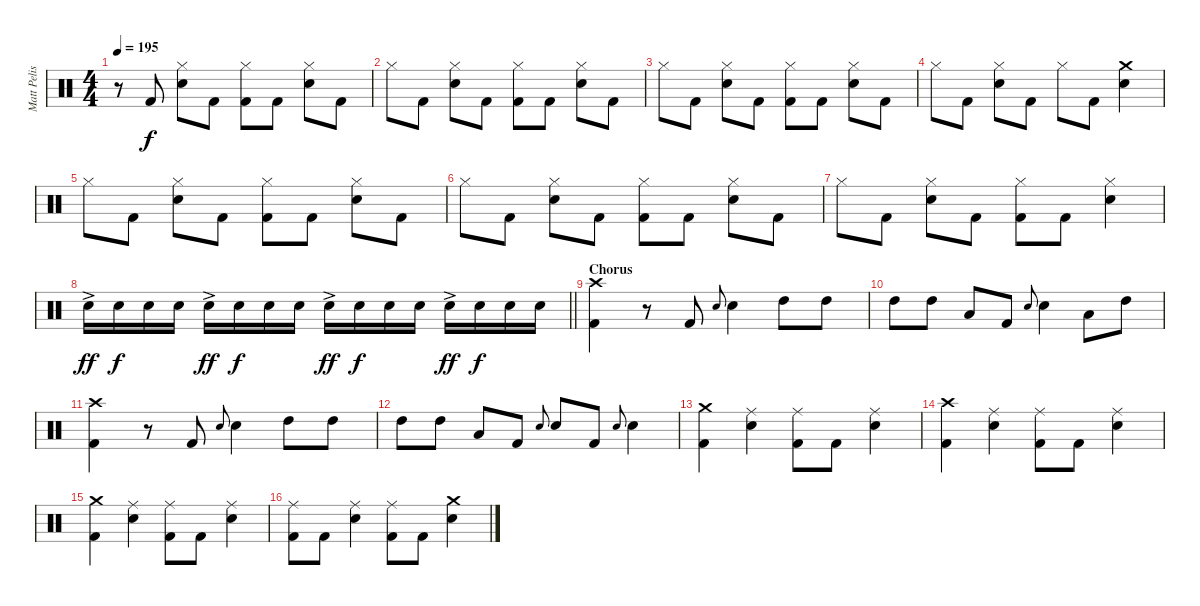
\track ("Matt Pelissier" "Matt Pelis") {instrument percussion}
\staff {score}
\articulation defaults
\ts (4 4)
\tempo 195
\clef neutral
\ks c
r.8{dy f} "Kick (hit) 2".8 ("Hi-Hat (closed)" "Electric Snare (hit)").8 "Kick (hit) 2".8 ("Hi-Hat (closed)" "Kick (hit) 2").8 "Kick (hit) 2".8 ("Hi-Hat (closed)" "Electric Snare (hit)").8 "Kick (hit) 2".8 |
"Hi-Hat (closed)".8 "Kick (hit) 2".8 ("Hi-Hat (closed)" "Electric Snare (hit)").8 "Kick (hit) 2".8 ("Hi-Hat (closed)" "Kick (hit) 2").8 "Kick (hit) 2".8 ("Hi-Hat (closed)" "Electric Snare (hit)").8 "Kick (hit) 2".8 |
"Hi-Hat (closed)".8 "Kick (hit) 2".8 ("Hi-Hat (closed)" "Electric Snare (hit)").8 "Kick (hit) 2".8 ("Hi-Hat (closed)" "Kick (hit) 2").8 "Kick (hit) 2".8 ("Hi-Hat (closed)" "Electric Snare (hit)").8 "Kick (hit) 2".8 |
"Hi-Hat (closed)".8 "Kick (hit) 2".8 ("Hi-Hat (closed)" "Electric Snare (hit)").8 "Kick (hit) 2".8 "Hi-Hat (closed)".8 "Kick (hit) 2".8 ("Crash medium (hit)" "Electric Snare (hit)").4 |
"Hi-Hat (closed)".8 "Kick (hit) 2".8 ("Hi-Hat (closed)" "Electric Snare (hit)").8 "Kick (hit) 2".8 ("Hi-Hat (closed)" "Kick (hit) 2").8 "Kick (hit) 2".8 ("Hi-Hat (closed)" "Electric Snare (hit)").8 "Kick (hit) 2".8 |
"Hi-Hat (closed)".8 "Kick (hit) 2".8 ("Hi-Hat (closed)" "Electric Snare (hit)").8 "Kick (hit) 2".8 ("Hi-Hat (closed)" "Kick (hit) 2").8 "Kick (hit) 2".8 ("Hi-Hat (closed)" "Electric Snare (hit)").8 "Kick (hit) 2".8 |
"Hi-Hat (closed)".8 "Kick (hit) 2".8 ("Hi-Hat (closed)" "Electric Snare (hit)").8 "Kick (hit) 2".8 ("Hi-Hat (closed)" "Kick (hit) 2").8 "Kick (hit) 2".8 ("Hi-Hat (closed)" "Electric Snare (hit)").4 |
\barLineRight lightlight "Electric Snare (hit)"{ac}.16{dy ff} "Electric Snare (hit)".16{dy f} "Electric Snare (hit)".16 "Electric Snare (hit)".16 "Electric Snare (hit)"{ac}.16{dy ff} "Electric Snare (hit)".16{dy f} "Electric Snare (hit)".16 "Electric Snare (hit)".16 "Electric Snare (hit)"{ac}.16{dy ff} "Electric Snare (hit)".16{dy f} "Electric Snare (hit)".16 "Electric Snare (hit)".16 "Electric Snare (hit)"{ac}.16{dy ff} "Electric Snare (hit)".16{dy f} "Electric Snare (hit)".16 "Electric Snare (hit)".16
|
\section ("" "Chorus")
("Crash high (hit)" "Kick (hit) 2").4 r.8 "Kick (hit) 2".8 "Electric Snare (hit)".8{gr onbeat} "Electric Snare (hit)".4 "High Tom (hit)".8 "High Tom (hit)".8 |
"High Tom (hit)".8 "High Tom (hit)".8 "Low Tom (hit)".8 "Kick (hit) 2".8 "Electric Snare (hit)".8{gr onbeat} "Electric Snare (hit)".4 "Low Tom (hit)".8 "High Tom (hit)".8 |
("Crash high (hit)" "Kick (hit) 2").4 r.8 "Kick (hit) 2".8 "Electric Snare (hit)".8{gr onbeat} "Electric Snare (hit)".4 "High Tom (hit)".8 "High Tom (hit)".8 |
"High Tom (hit)".8 "High Tom (hit)".8 "Low Tom (hit)".8 "Kick (hit) 2".8 "Electric Snare (hit)".8{gr onbeat} "Electric Snare (hit)".8 "Kick (hit) 2".8 "Electric Snare (hit)".8{gr onbeat} "Electric Snare (hit)".4 |
("Crash medium (hit)" "Kick (hit) 2").4 ("Ride (middle)" "Electric Snare (hit)").4 ("Ride (middle)" "Kick (hit) 2").8 "Kick (hit) 2".8 ("Ride (middle)" "Electric Snare (hit)").4 |
("Crash high (hit)" "Kick (hit) 2").4 ("Ride (middle)" "Electric Snare (hit)").4 ("Ride (middle)" "Kick (hit) 2").8 "Kick (hit) 2".8 ("Ride (middle)" "Electric Snare (hit)").4 |
("Crash medium (hit)" "Kick (hit) 2").4 ("Ride (middle)" "Electric Snare (hit)").4 ("Ride (middle)" "Kick (hit) 2").8 "Kick (hit) 2".8 ("Ride (middle)" "Electric Snare (hit)").4 |
("Ride (middle)" "Kick (hit) 2").8 "Kick (hit) 2".8 ("Ride (middle)" "Electric Snare (hit)").4 ("Ride (middle)" "Kick (hit) 2").8 "Kick (hit) 2".8 ("Crash medium (hit)" "Electric Snare (hit)").4
